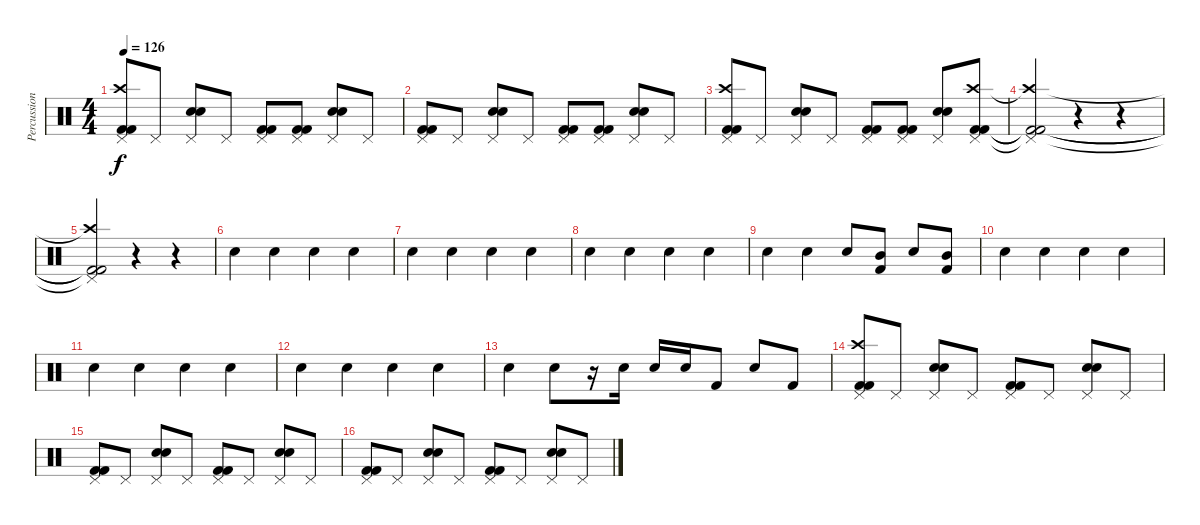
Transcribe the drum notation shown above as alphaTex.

\track ("Percussion" "Percussion") {instrument percussion}
\staff {score}
\articulation defaults
\ts (4 4)
\tempo 126
\clef neutral
\ks c
("Pedal Hi-Hat (hit)" "Crash high (hit)" "Kick (hit) 2" "Kick (hit) 2").8{dy f} "Pedal Hi-Hat (hit)".8 ("Pedal Hi-Hat (hit)" "Electric Snare (hit)" "Snare (hit) 2").8 "Pedal Hi-Hat (hit)".8 ("Pedal Hi-Hat (hit)" "Kick (hit) 2" "Kick (hit) 2").8 ("Pedal Hi-Hat (hit)" "Kick (hit) 2" "Kick (hit) 2").8 ("Pedal Hi-Hat (hit)" "Electric Snare (hit)" "Snare (hit) 2").8 "Pedal Hi-Hat (hit)".8 |
("Pedal Hi-Hat (hit)" "Kick (hit) 2" "Kick (hit) 2").8 "Pedal Hi-Hat (hit)".8 ("Pedal Hi-Hat (hit)" "Electric Snare (hit)" "Snare (hit) 2").8 "Pedal Hi-Hat (hit)".8 ("Pedal Hi-Hat (hit)" "Kick (hit) 2" "Kick (hit) 2").8 ("Pedal Hi-Hat (hit)" "Kick (hit) 2" "Kick (hit) 2").8 ("Pedal Hi-Hat (hit)" "Electric Snare (hit)" "Snare (hit) 2").8 "Pedal Hi-Hat (hit)".8 |
("Pedal Hi-Hat (hit)" "Crash high (hit)" "Kick (hit) 2" "Kick (hit) 2").8 "Pedal Hi-Hat (hit)".8 ("Pedal Hi-Hat (hit)" "Electric Snare (hit)" "Snare (hit) 2").8 "Pedal Hi-Hat (hit)".8 ("Pedal Hi-Hat (hit)" "Kick (hit) 2" "Kick (hit) 2").8 ("Pedal Hi-Hat (hit)" "Kick (hit) 2" "Kick (hit) 2").8 ("Pedal Hi-Hat (hit)" "Electric Snare (hit)" "Snare (hit) 2").8 ("Pedal Hi-Hat (hit)" "Crash high (hit)" "Kick (hit) 2" "Kick (hit) 2").8 |
("Pedal Hi-Hat (hit)"{t} "Crash high (hit)"{t} "Kick (hit) 2"{t} "Kick (hit) 2"{t}).2 r.4 r.4 |
("Pedal Hi-Hat (hit)"{t} "Crash high (hit)"{t} "Kick (hit) 2"{t} "Kick (hit) 2"{t}).2 r.4 r.4 |
"Electric Snare (hit)".4 "Electric Snare (hit)".4 "Electric Snare (hit)".4 "Electric Snare (hit)".4 |
"Electric Snare (hit)".4 "Electric Snare (hit)".4 "Electric Snare (hit)".4 "Electric Snare (hit)".4 |
"Electric Snare (hit)".4 "Electric Snare (hit)".4 "Electric Snare (hit)".4 "Electric Snare (hit)".4 |
"Electric Snare (hit)".4 "Electric Snare (hit)".4 "Electric Snare (hit)".8 ("Kick (hit) 2" "Mid Tom (hit)").8 "Electric Snare (hit)".8 ("Kick (hit) 2" "Mid Tom (hit)").8 |
"Electric Snare (hit)".4 "Electric Snare (hit)".4 "Electric Snare (hit)".4 "Electric Snare (hit)".4 |
"Electric Snare (hit)".4 "Electric Snare (hit)".4 "Electric Snare (hit)".4 "Electric Snare (hit)".4 |
"Electric Snare (hit)".4 "Electric Snare (hit)".4 "Electric Snare (hit)".4 "Electric Snare (hit)".4 |
"Electric Snare (hit)".4 "Electric Snare (hit)".8 r.16 "Electric Snare (hit)".16 "Electric Snare (hit)".16 "Electric Snare (hit)".16 "Kick (hit) 2".8 "Electric Snare (hit)".8 "Kick (hit) 2".8 |
("Pedal Hi-Hat (hit)" "Crash high (hit)" "Kick (hit) 2" "Kick (hit) 2").8 "Pedal Hi-Hat (hit)".8 ("Pedal Hi-Hat (hit)" "Electric Snare (hit)" "Snare (hit) 2").8 "Pedal Hi-Hat (hit)".8 ("Pedal Hi-Hat (hit)" "Kick (hit) 2" "Kick (hit) 2").8 "Pedal Hi-Hat (hit)".8 ("Pedal Hi-Hat (hit)" "Electric Snare (hit)" "Snare (hit) 2").8 "Pedal Hi-Hat (hit)".8 |
("Pedal Hi-Hat (hit)" "Kick (hit) 2" "Kick (hit) 2").8 "Pedal Hi-Hat (hit)".8 ("Pedal Hi-Hat (hit)" "Electric Snare (hit)" "Snare (hit) 2").8 "Pedal Hi-Hat (hit)".8 ("Pedal Hi-Hat (hit)" "Kick (hit) 2" "Kick (hit) 2").8 "Pedal Hi-Hat (hit)".8 ("Pedal Hi-Hat (hit)" "Electric Snare (hit)" "Snare (hit) 2").8 "Pedal Hi-Hat (hit)".8 |
("Pedal Hi-Hat (hit)" "Kick (hit) 2" "Kick (hit) 2").8 "Pedal Hi-Hat (hit)".8 ("Pedal Hi-Hat (hit)" "Electric Snare (hit)" "Snare (hit) 2").8 "Pedal Hi-Hat (hit)".8 ("Pedal Hi-Hat (hit)" "Kick (hit) 2" "Kick (hit) 2").8 "Pedal Hi-Hat (hit)".8 ("Pedal Hi-Hat (hit)" "Electric Snare (hit)" "Snare (hit) 2").8 "Pedal Hi-Hat (hit)".8
